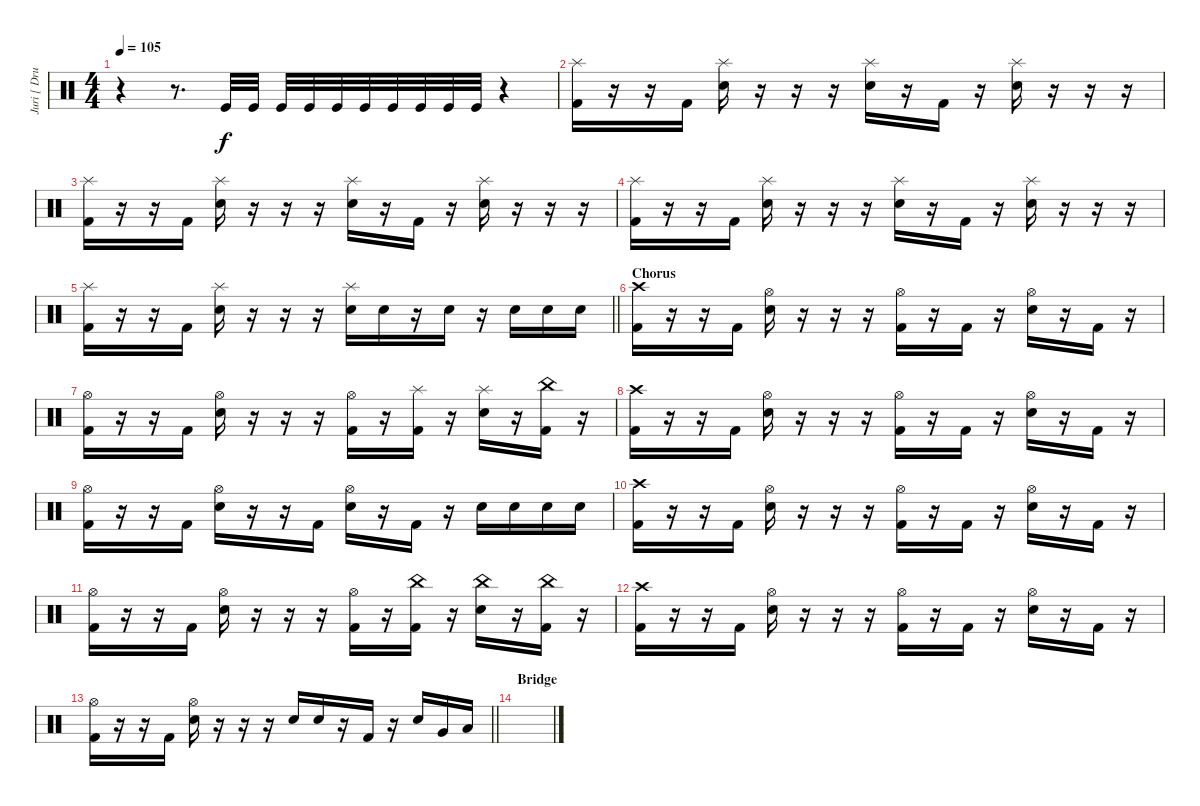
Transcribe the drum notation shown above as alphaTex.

\track ("Juri [ Drums]" "Juri [ Dru") {instrument percussion}
\staff {score}
\articulation defaults
\ts (4 4)
\tempo 105
\clef neutral
\ks c
r.4{dy f} r.8{d} "Kick (hit)".32 "Kick (hit)".32 "Kick (hit)".32 "Kick (hit)".32 "Kick (hit)".32 "Kick (hit)".32 "Kick (hit)".32 "Kick (hit)".32 "Kick (hit)".32 "Kick (hit)".32 r.4 |
("Splash (hit)" "Kick (hit) 2").16 r.16 r.16 "Kick (hit) 2".16 ("Splash (hit)" "Electric Snare (hit)").16 r.16 r.16 r.16 ("Splash (hit)" "Electric Snare (hit)").16 r.16 "Kick (hit) 2".16 r.16 ("Splash (hit)" "Electric Snare (hit)").16 r.16 r.16 r.16 |
("Splash (hit)" "Kick (hit) 2").16 r.16 r.16 "Kick (hit) 2".16 ("Splash (hit)" "Electric Snare (hit)").16 r.16 r.16 r.16 ("Splash (hit)" "Electric Snare (hit)").16 r.16 "Kick (hit) 2".16 r.16 ("Splash (hit)" "Electric Snare (hit)").16 r.16 r.16 r.16 |
("Splash (hit)" "Kick (hit) 2").16 r.16 r.16 "Kick (hit) 2".16 ("Splash (hit)" "Electric Snare (hit)").16 r.16 r.16 r.16 ("Splash (hit)" "Electric Snare (hit)").16 r.16 "Kick (hit) 2".16 r.16 ("Splash (hit)" "Electric Snare (hit)").16 r.16 r.16 r.16 |
\barLineRight lightlight
("Splash (hit)" "Kick (hit) 2").16 r.16 r.16 "Kick (hit) 2".16 ("Splash (hit)" "Electric Snare (hit)").16 r.16 r.16 r.16 ("Splash (hit)" "Electric Snare (hit)").16 "Electric Snare (hit)".16 r.16 "Electric Snare (hit)".16 r.16 "Electric Snare (hit)".16 "Electric Snare (hit)".16 "Electric Snare (hit)".16 |
\section ("" "Chorus")
("Crash high (hit)" "Kick (hit) 2").16 r.16 r.16 "Kick (hit) 2".16 ("Hi-Hat (open)" "Electric Snare (hit)").16 r.16 r.16 r.16 ("Hi-Hat (open)" "Kick (hit) 2").16 r.16 "Kick (hit) 2".16 r.16 ("Hi-Hat (open)" "Electric Snare (hit)").16 r.16 "Kick (hit) 2".16 r.16 |
("Hi-Hat (open)" "Kick (hit) 2").16 r.16 r.16 "Kick (hit) 2".16 ("Hi-Hat (open)" "Electric Snare (hit)").16 r.16 r.16 r.16 ("Hi-Hat (open)" "Kick (hit) 2").16 r.16 ("Splash (hit)" "Kick (hit) 2").16 r.16 ("Splash (hit)" "Electric Snare (hit)").16 r.16 ("China (hit)" "Kick (hit) 2").16 r.16 |
("Crash high (hit)" "Kick (hit) 2").16 r.16 r.16 "Kick (hit) 2".16 ("Hi-Hat (open)" "Electric Snare (hit)").16 r.16 r.16 r.16 ("Hi-Hat (open)" "Kick (hit) 2").16 r.16 "Kick (hit) 2".16 r.16 ("Hi-Hat (open)" "Electric Snare (hit)").16 r.16 "Kick (hit) 2".16 r.16 |
("Hi-Hat (open)" "Kick (hit) 2").16 r.16 r.16 "Kick (hit) 2".16 ("Hi-Hat (open)" "Electric Snare (hit)").16 r.16 r.16 "Kick (hit) 2".16 ("Hi-Hat (open)" "Electric Snare (hit)").16 r.16 "Kick (hit) 2".16 r.16 "Electric Snare (hit)".16 "Electric Snare (hit)".16 "Electric Snare (hit)".16 "Electric Snare (hit)".16 |
("Crash high (hit)" "Kick (hit) 2").16 r.16 r.16 "Kick (hit) 2".16 ("Hi-Hat (open)" "Electric Snare (hit)").16 r.16 r.16 r.16 ("Hi-Hat (open)" "Kick (hit) 2").16 r.16 "Kick (hit) 2".16 r.16 ("Hi-Hat (open)" "Electric Snare (hit)").16 r.16 "Kick (hit) 2".16 r.16 |
("Hi-Hat (open)" "Kick (hit) 2").16 r.16 r.16 "Kick (hit) 2".16 ("Hi-Hat (open)" "Electric Snare (hit)").16 r.16 r.16 r.16 ("Hi-Hat (open)" "Kick (hit) 2").16 r.16 ("China (hit)" "Kick (hit) 2").16 r.16 ("China (hit)" "Electric Snare (hit)").16 r.16 ("China (hit)" "Kick (hit) 2").16 r.16 |
("Crash high (hit)" "Kick (hit) 2").16 r.16 r.16 "Kick (hit) 2".16 ("Hi-Hat (open)" "Electric Snare (hit)").16 r.16 r.16 r.16 ("Hi-Hat (open)" "Kick (hit) 2").16 r.16 "Kick (hit) 2".16 r.16 ("Hi-Hat (open)" "Electric Snare (hit)").16 r.16 "Kick (hit) 2".16 r.16 |
\barLineRight lightlight
("Hi-Hat (open)" "Kick (hit) 2").16 r.16 r.16 "Kick (hit) 2".16 ("Hi-Hat (open)" "Electric Snare (hit)").16 r.16 r.16 r.16 "Electric Snare (hit)".16 "Electric Snare (hit)".16 r.16 "Kick (hit) 2".16 r.16 "Electric Snare (hit)".16 "Very Low Tom (hit)".16 "Low Floor Tom (hit)".16 |
\section ("" "Bridge")
